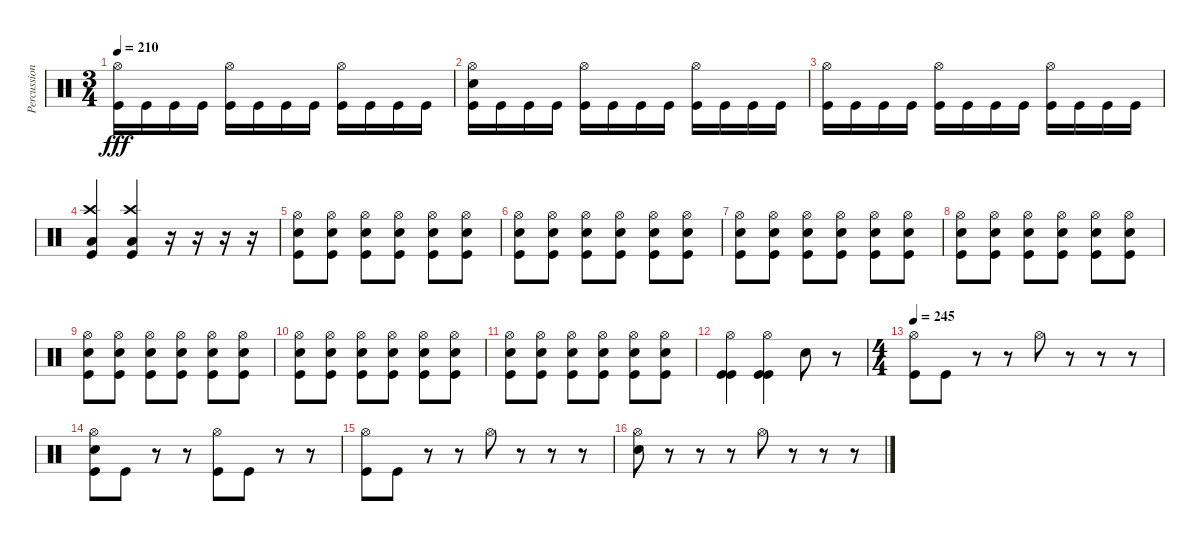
\track ("Percussion" "Percussion") {instrument percussion}
\staff {score}
\articulation defaults
\ts (3 4)
\tempo 210
\clef neutral
\ks c
("Hi-Hat (open)" "Kick (hit)").16{dy fff} "Kick (hit)".16 "Kick (hit)".16 "Kick (hit)".16 ("Hi-Hat (open)" "Kick (hit)").16 "Kick (hit)".16 "Kick (hit)".16 "Kick (hit)".16 ("Hi-Hat (open)" "Kick (hit)").16 "Kick (hit)".16 "Kick (hit)".16 "Kick (hit)".16 |
("Hi-Hat (open)" "Electric Snare (hit)" "Kick (hit)").16 "Kick (hit)".16 "Kick (hit)".16 "Kick (hit)".16 ("Hi-Hat (open)" "Kick (hit)").16 "Kick (hit)".16 "Kick (hit)".16 "Kick (hit)".16 ("Hi-Hat (open)" "Kick (hit)").16 "Kick (hit)".16 "Kick (hit)".16 "Kick (hit)".16 |
("Hi-Hat (open)" "Kick (hit)").16 "Kick (hit)".16 "Kick (hit)".16 "Kick (hit)".16 ("Hi-Hat (open)" "Kick (hit)").16 "Kick (hit)".16 "Kick (hit)".16 "Kick (hit)".16 ("Hi-Hat (open)" "Kick (hit)").16 "Kick (hit)".16 "Kick (hit)".16 "Kick (hit)".16 |
("Crash high (hit)" "Low Floor Tom (hit)" "Kick (hit)").4 ("Crash high (hit)" "Low Floor Tom (hit)" "Kick (hit)").4 r.16 r.16 r.16 r.16 |
("Hi-Hat (open)" "Electric Snare (hit)" "Kick (hit)").8 ("Hi-Hat (open)" "Electric Snare (hit)" "Kick (hit)").8 ("Hi-Hat (open)" "Electric Snare (hit)" "Kick (hit)").8 ("Hi-Hat (open)" "Electric Snare (hit)" "Kick (hit)").8 ("Hi-Hat (open)" "Electric Snare (hit)" "Kick (hit)").8 ("Hi-Hat (open)" "Electric Snare (hit)" "Kick (hit)").8 |
("Hi-Hat (open)" "Electric Snare (hit)" "Kick (hit)").8 ("Hi-Hat (open)" "Electric Snare (hit)" "Kick (hit)").8 ("Hi-Hat (open)" "Electric Snare (hit)" "Kick (hit)").8 ("Hi-Hat (open)" "Electric Snare (hit)" "Kick (hit)").8 ("Hi-Hat (open)" "Electric Snare (hit)" "Kick (hit)").8 ("Hi-Hat (open)" "Electric Snare (hit)" "Kick (hit)").8 |
("Hi-Hat (open)" "Electric Snare (hit)" "Kick (hit)").8 ("Hi-Hat (open)" "Electric Snare (hit)" "Kick (hit)").8 ("Hi-Hat (open)" "Electric Snare (hit)" "Kick (hit)").8 ("Hi-Hat (open)" "Electric Snare (hit)" "Kick (hit)").8 ("Hi-Hat (open)" "Electric Snare (hit)" "Kick (hit)").8 ("Hi-Hat (open)" "Electric Snare (hit)" "Kick (hit)").8 |
("Hi-Hat (open)" "Electric Snare (hit)" "Kick (hit)").8 ("Hi-Hat (open)" "Electric Snare (hit)" "Kick (hit)").8 ("Hi-Hat (open)" "Electric Snare (hit)" "Kick (hit)").8 ("Hi-Hat (open)" "Electric Snare (hit)" "Kick (hit)").8 ("Hi-Hat (open)" "Electric Snare (hit)" "Kick (hit)").8 ("Hi-Hat (open)" "Electric Snare (hit)" "Kick (hit)").8 |
("Hi-Hat (open)" "Electric Snare (hit)" "Kick (hit)").8 ("Hi-Hat (open)" "Electric Snare (hit)" "Kick (hit)").8 ("Hi-Hat (open)" "Electric Snare (hit)" "Kick (hit)").8 ("Hi-Hat (open)" "Electric Snare (hit)" "Kick (hit)").8 ("Hi-Hat (open)" "Electric Snare (hit)" "Kick (hit)").8 ("Hi-Hat (open)" "Electric Snare (hit)" "Kick (hit)").8 |
("Hi-Hat (open)" "Electric Snare (hit)" "Kick (hit)").8 ("Hi-Hat (open)" "Electric Snare (hit)" "Kick (hit)").8 ("Hi-Hat (open)" "Electric Snare (hit)" "Kick (hit)").8 ("Hi-Hat (open)" "Electric Snare (hit)" "Kick (hit)").8 ("Hi-Hat (open)" "Electric Snare (hit)" "Kick (hit)").8 ("Hi-Hat (open)" "Electric Snare (hit)" "Kick (hit)").8 |
("Hi-Hat (open)" "Electric Snare (hit)" "Kick (hit)").8 ("Hi-Hat (open)" "Electric Snare (hit)" "Kick (hit)").8 ("Hi-Hat (open)" "Electric Snare (hit)" "Kick (hit)").8 ("Hi-Hat (open)" "Electric Snare (hit)" "Kick (hit)").8 ("Hi-Hat (open)" "Electric Snare (hit)" "Kick (hit)").8 ("Hi-Hat (open)" "Electric Snare (hit)" "Kick (hit)").8 |
("Hi-Hat (open)" "Kick (hit)" "Kick (hit)").4 ("Hi-Hat (open)" "Kick (hit)" "Kick (hit)").4 "Electric Snare (hit)".8 r.8 |
\ts (4 4)
\tempo 245
("Hi-Hat (open)" "Kick (hit)").8 "Kick (hit)".8 r.8 r.8 "Hi-Hat (open)".8 r.8 r.8 r.8 |
("Hi-Hat (open)" "Electric Snare (hit)" "Kick (hit)").8 "Kick (hit)".8 r.8 r.8 ("Hi-Hat (open)" "Kick (hit)").8 "Kick (hit)".8 r.8 r.8 |
("Hi-Hat (open)" "Kick (hit)").8 "Kick (hit)".8 r.8 r.8 "Hi-Hat (open)".8 r.8 r.8 r.8 |
("Hi-Hat (open)" "Electric Snare (hit)").8 r.8 r.8 r.8 "Hi-Hat (open)".8 r.8 r.8 r.8
